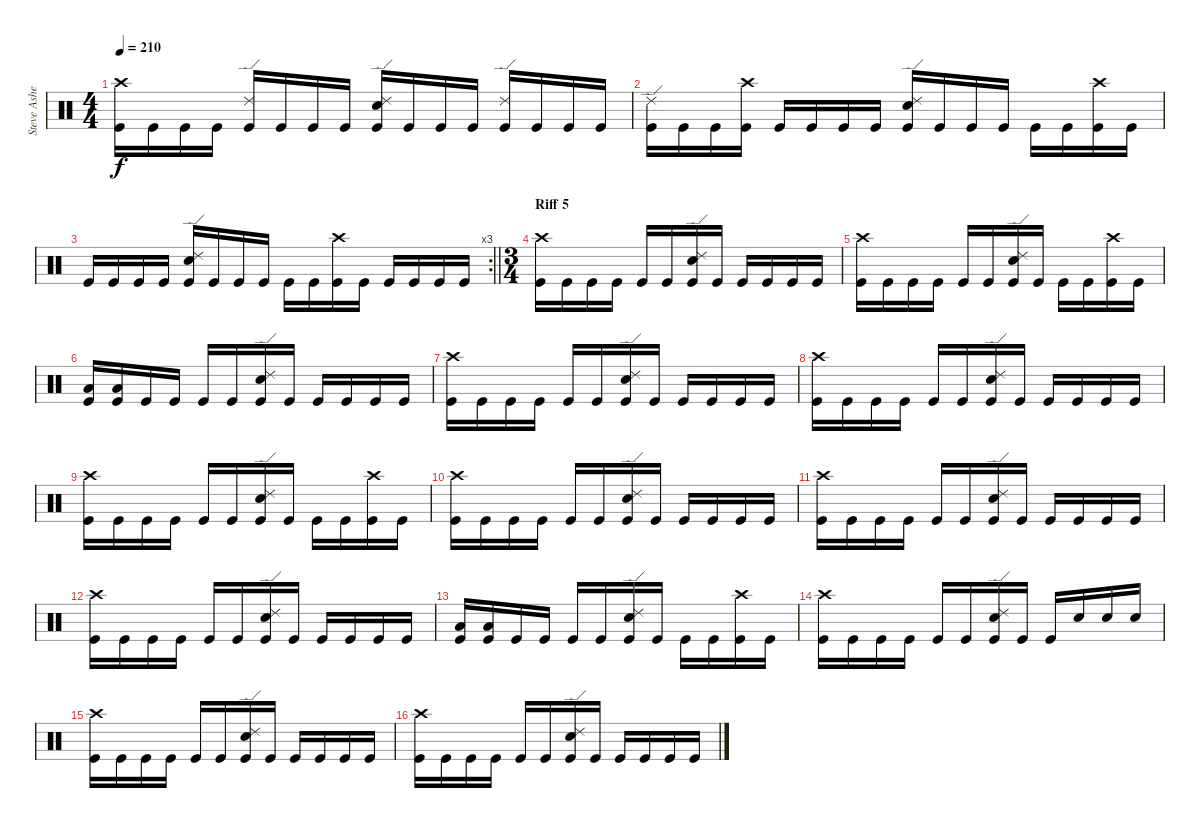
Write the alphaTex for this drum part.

\track ("Steve Asheim" "Steve Ashe") {instrument percussion}
\staff {score}
\articulation defaults
\ts (4 4)
\tempo 210
\clef neutral
\ks c
("Crash high (hit)" "Kick (hit)").16{dy f} "Kick (hit)".16 "Kick (hit)".16 "Kick (hit)".16 ("Ride (edge) 2" "Kick (hit)").16 "Kick (hit)".16 "Kick (hit)".16 "Kick (hit)".16 ("Ride (edge) 2" "Snare (hit) 2" "Kick (hit)").16 "Kick (hit)".16 "Kick (hit)".16 "Kick (hit)".16 ("Ride (edge) 2" "Kick (hit)").16 "Kick (hit)".16 "Kick (hit)".16 "Kick (hit)".16 |
("Ride (edge) 2" "Kick (hit)").16 "Kick (hit)".16 "Kick (hit)".16 ("Crash high (hit)" "Kick (hit)").16 "Kick (hit)".16 "Kick (hit)".16 "Kick (hit)".16 "Kick (hit)".16 ("Ride (edge) 2" "Snare (hit) 2" "Kick (hit)").16 "Kick (hit)".16 "Kick (hit)".16 "Kick (hit)".16 "Kick (hit)".16 "Kick (hit)".16 ("Crash high (hit)" "Kick (hit)").16 "Kick (hit)".16 |
\rc 3
\barLineRight lightlight "Kick (hit)".16 "Kick (hit)".16 "Kick (hit)".16 "Kick (hit)".16
("Ride (edge) 2" "Snare (hit) 2" "Kick (hit)").16 "Kick (hit)".16 "Kick (hit)".16 "Kick (hit)".16 "Kick (hit)".16 "Kick (hit)".16 ("Crash high (hit)" "Kick (hit)").16 "Kick (hit)".16 "Kick (hit)".16 "Kick (hit)".16 "Kick (hit)".16 "Kick (hit)".16 |
\ts (3 4)
\section ("" "Riff 5")
("Crash high (hit)" "Kick (hit)").16 "Kick (hit)".16 "Kick (hit)".16 "Kick (hit)".16 "Kick (hit)".16 "Kick (hit)".16 ("Ride (edge) 2" "Snare (hit) 2" "Kick (hit)").16 "Kick (hit)".16 "Kick (hit)".16 "Kick (hit)".16 "Kick (hit)".16 "Kick (hit)".16 |
("Crash high (hit)" "Kick (hit)").16 "Kick (hit)".16 "Kick (hit)".16 "Kick (hit)".16 "Kick (hit)".16 "Kick (hit)".16 ("Ride (edge) 2" "Snare (hit) 2" "Kick (hit)").16 "Kick (hit)".16 "Kick (hit)".16 "Kick (hit)".16 ("Crash high (hit)" "Kick (hit)").16 "Kick (hit)".16 |
("Low Tom (hit)" "Kick (hit)").16 ("Low Floor Tom (hit)" "Kick (hit)").16 "Kick (hit)".16 "Kick (hit)".16 "Kick (hit)".16 "Kick (hit)".16 ("Ride (edge) 2" "Snare (hit) 2" "Kick (hit)").16 "Kick (hit)".16 "Kick (hit)".16 "Kick (hit)".16 "Kick (hit)".16 "Kick (hit)".16 |
("Crash high (hit)" "Kick (hit)").16 "Kick (hit)".16 "Kick (hit)".16 "Kick (hit)".16 "Kick (hit)".16 "Kick (hit)".16 ("Ride (edge) 2" "Snare (hit) 2" "Kick (hit)").16 "Kick (hit)".16 "Kick (hit)".16 "Kick (hit)".16 "Kick (hit)".16 "Kick (hit)".16 |
("Crash high (hit)" "Kick (hit)").16 "Kick (hit)".16 "Kick (hit)".16 "Kick (hit)".16 "Kick (hit)".16 "Kick (hit)".16 ("Ride (edge) 2" "Snare (hit) 2" "Kick (hit)").16 "Kick (hit)".16 "Kick (hit)".16 "Kick (hit)".16 "Kick (hit)".16 "Kick (hit)".16 |
("Crash high (hit)" "Kick (hit)").16 "Kick (hit)".16 "Kick (hit)".16 "Kick (hit)".16 "Kick (hit)".16 "Kick (hit)".16 ("Ride (edge) 2" "Snare (hit) 2" "Kick (hit)").16 "Kick (hit)".16 "Kick (hit)".16 "Kick (hit)".16 ("Crash high (hit)" "Kick (hit)").16 "Kick (hit)".16 |
("Crash high (hit)" "Kick (hit)").16 "Kick (hit)".16 "Kick (hit)".16 "Kick (hit)".16 "Kick (hit)".16 "Kick (hit)".16 ("Ride (edge) 2" "Snare (hit) 2" "Kick (hit)").16 "Kick (hit)".16 "Kick (hit)".16 "Kick (hit)".16 "Kick (hit)".16 "Kick (hit)".16 |
("Crash high (hit)" "Kick (hit)").16 "Kick (hit)".16 "Kick (hit)".16 "Kick (hit)".16 "Kick (hit)".16 "Kick (hit)".16 ("Ride (edge) 2" "Snare (hit) 2" "Kick (hit)").16 "Kick (hit)".16 "Kick (hit)".16 "Kick (hit)".16 "Kick (hit)".16 "Kick (hit)".16 |
("Crash high (hit)" "Kick (hit)").16 "Kick (hit)".16 "Kick (hit)".16 "Kick (hit)".16 "Kick (hit)".16 "Kick (hit)".16 ("Ride (edge) 2" "Snare (hit) 2" "Kick (hit)").16 "Kick (hit)".16 "Kick (hit)".16 "Kick (hit)".16 "Kick (hit)".16 "Kick (hit)".16 |
("Low Tom (hit)" "Kick (hit)").16 ("Low Floor Tom (hit)" "Kick (hit)").16 "Kick (hit)".16 "Kick (hit)".16 "Kick (hit)".16 "Kick (hit)".16 ("Ride (edge) 2" "Snare (hit) 2" "Kick (hit)").16 "Kick (hit)".16 "Kick (hit)".16 "Kick (hit)".16 ("Crash high (hit)" "Kick (hit)").16 "Kick (hit)".16 |
("Crash high (hit)" "Kick (hit)").16 "Kick (hit)".16 "Kick (hit)".16 "Kick (hit)".16 "Kick (hit)".16 "Kick (hit)".16 ("Ride (edge) 2" "Snare (hit) 2" "Kick (hit)").16 "Kick (hit)".16 "Kick (hit)".16 "Snare (hit) 2".16 "Snare (hit) 2".16 "Snare (hit) 2".16 |
("Crash high (hit)" "Kick (hit)").16 "Kick (hit)".16 "Kick (hit)".16 "Kick (hit)".16 "Kick (hit)".16 "Kick (hit)".16 ("Ride (edge) 2" "Snare (hit) 2" "Kick (hit)").16 "Kick (hit)".16 "Kick (hit)".16 "Kick (hit)".16 "Kick (hit)".16 "Kick (hit)".16 |
("Crash high (hit)" "Kick (hit)").16 "Kick (hit)".16 "Kick (hit)".16 "Kick (hit)".16 "Kick (hit)".16 "Kick (hit)".16 ("Ride (edge) 2" "Snare (hit) 2" "Kick (hit)").16 "Kick (hit)".16 "Kick (hit)".16 "Kick (hit)".16 "Kick (hit)".16 "Kick (hit)".16
